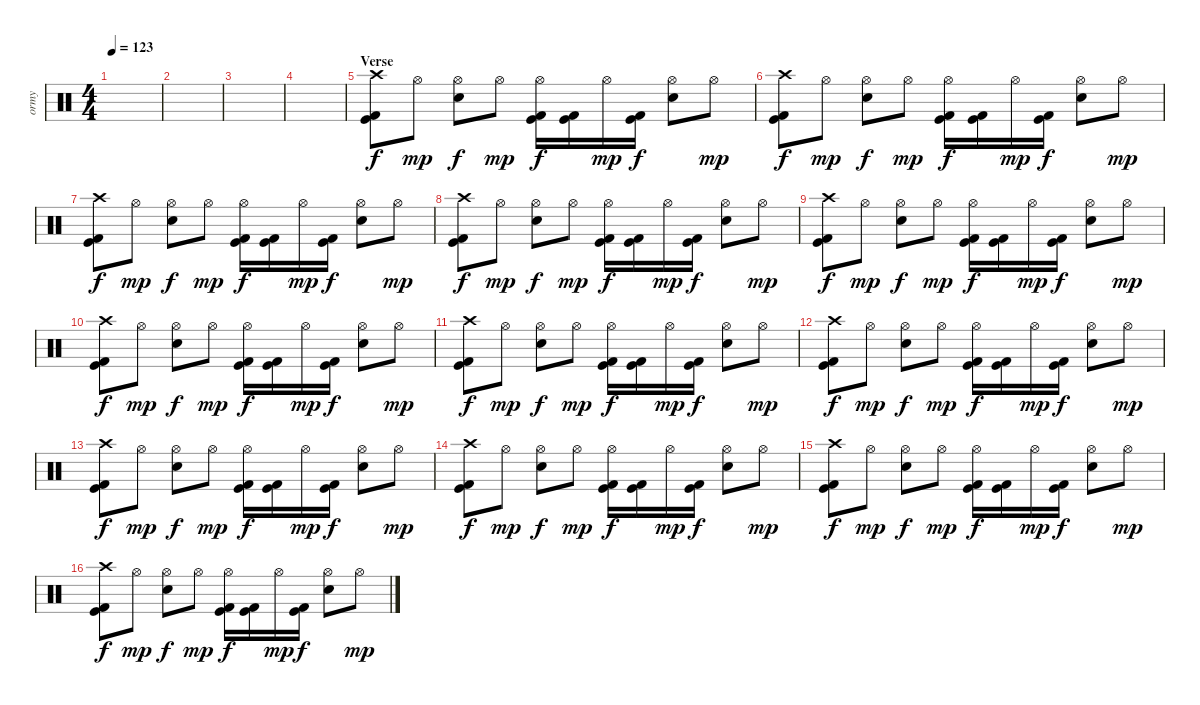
\track ("ormy" "ormy") {instrument percussion}
\staff {score}
\articulation defaults
\ts (4 4)
\tempo 123
\clef neutral
\ks c
|
|
|
|
\section ("" "Verse")
("Crash high (hit)" "Kick (hit) 2" "Kick (hit)").8 "Hi-Hat (open)".8{dy mp} ("Hi-Hat (open)" "Snare (hit) 2").8{dy f} "Hi-Hat (open)".8{dy mp} ("Hi-Hat (open)" "Kick (hit) 2" "Kick (hit)").16{dy f} ("Kick (hit) 2" "Kick (hit)").16 "Hi-Hat (open)".16{dy mp} ("Kick (hit) 2" "Kick (hit)").16{dy f} ("Hi-Hat (open)" "Snare (hit) 2").8 "Hi-Hat (open)".8{dy mp} |
("Crash high (hit)" "Kick (hit) 2" "Kick (hit)").8{dy f} "Hi-Hat (open)".8{dy mp} ("Hi-Hat (open)" "Snare (hit) 2").8{dy f} "Hi-Hat (open)".8{dy mp} ("Hi-Hat (open)" "Kick (hit) 2" "Kick (hit)").16{dy f} ("Kick (hit) 2" "Kick (hit)").16 "Hi-Hat (open)".16{dy mp} ("Kick (hit) 2" "Kick (hit)").16{dy f} ("Hi-Hat (open)" "Snare (hit) 2").8 "Hi-Hat (open)".8{dy mp} |
("Crash high (hit)" "Kick (hit) 2" "Kick (hit)").8{dy f} "Hi-Hat (open)".8{dy mp} ("Hi-Hat (open)" "Snare (hit) 2").8{dy f} "Hi-Hat (open)".8{dy mp} ("Hi-Hat (open)" "Kick (hit) 2" "Kick (hit)").16{dy f} ("Kick (hit) 2" "Kick (hit)").16 "Hi-Hat (open)".16{dy mp} ("Kick (hit) 2" "Kick (hit)").16{dy f} ("Hi-Hat (open)" "Snare (hit) 2").8 "Hi-Hat (open)".8{dy mp} |
("Crash high (hit)" "Kick (hit) 2" "Kick (hit)").8{dy f} "Hi-Hat (open)".8{dy mp} ("Hi-Hat (open)" "Snare (hit) 2").8{dy f} "Hi-Hat (open)".8{dy mp} ("Hi-Hat (open)" "Kick (hit) 2" "Kick (hit)").16{dy f} ("Kick (hit) 2" "Kick (hit)").16 "Hi-Hat (open)".16{dy mp} ("Kick (hit) 2" "Kick (hit)").16{dy f} ("Hi-Hat (open)" "Snare (hit) 2").8 "Hi-Hat (open)".8{dy mp} |
("Crash high (hit)" "Kick (hit) 2" "Kick (hit)").8{dy f} "Hi-Hat (open)".8{dy mp} ("Hi-Hat (open)" "Snare (hit) 2").8{dy f} "Hi-Hat (open)".8{dy mp} ("Hi-Hat (open)" "Kick (hit) 2" "Kick (hit)").16{dy f} ("Kick (hit) 2" "Kick (hit)").16 "Hi-Hat (open)".16{dy mp} ("Kick (hit) 2" "Kick (hit)").16{dy f} ("Hi-Hat (open)" "Snare (hit) 2").8 "Hi-Hat (open)".8{dy mp} |
("Crash high (hit)" "Kick (hit) 2" "Kick (hit)").8{dy f} "Hi-Hat (open)".8{dy mp} ("Hi-Hat (open)" "Snare (hit) 2").8{dy f} "Hi-Hat (open)".8{dy mp} ("Hi-Hat (open)" "Kick (hit) 2" "Kick (hit)").16{dy f} ("Kick (hit) 2" "Kick (hit)").16 "Hi-Hat (open)".16{dy mp} ("Kick (hit) 2" "Kick (hit)").16{dy f} ("Hi-Hat (open)" "Snare (hit) 2").8 "Hi-Hat (open)".8{dy mp} |
("Crash high (hit)" "Kick (hit) 2" "Kick (hit)").8{dy f} "Hi-Hat (open)".8{dy mp} ("Hi-Hat (open)" "Snare (hit) 2").8{dy f} "Hi-Hat (open)".8{dy mp} ("Hi-Hat (open)" "Kick (hit) 2" "Kick (hit)").16{dy f} ("Kick (hit) 2" "Kick (hit)").16 "Hi-Hat (open)".16{dy mp} ("Kick (hit) 2" "Kick (hit)").16{dy f} ("Hi-Hat (open)" "Snare (hit) 2").8 "Hi-Hat (open)".8{dy mp} |
("Crash high (hit)" "Kick (hit) 2" "Kick (hit)").8{dy f} "Hi-Hat (open)".8{dy mp} ("Hi-Hat (open)" "Snare (hit) 2").8{dy f} "Hi-Hat (open)".8{dy mp} ("Hi-Hat (open)" "Kick (hit) 2" "Kick (hit)").16{dy f} ("Kick (hit) 2" "Kick (hit)").16 "Hi-Hat (open)".16{dy mp} ("Kick (hit) 2" "Kick (hit)").16{dy f} ("Hi-Hat (open)" "Snare (hit) 2").8 "Hi-Hat (open)".8{dy mp} |
("Crash high (hit)" "Kick (hit) 2" "Kick (hit)").8{dy f} "Hi-Hat (open)".8{dy mp} ("Hi-Hat (open)" "Snare (hit) 2").8{dy f} "Hi-Hat (open)".8{dy mp} ("Hi-Hat (open)" "Kick (hit) 2" "Kick (hit)").16{dy f} ("Kick (hit) 2" "Kick (hit)").16 "Hi-Hat (open)".16{dy mp} ("Kick (hit) 2" "Kick (hit)").16{dy f} ("Hi-Hat (open)" "Snare (hit) 2").8 "Hi-Hat (open)".8{dy mp} |
("Crash high (hit)" "Kick (hit) 2" "Kick (hit)").8{dy f} "Hi-Hat (open)".8{dy mp} ("Hi-Hat (open)" "Snare (hit) 2").8{dy f} "Hi-Hat (open)".8{dy mp} ("Hi-Hat (open)" "Kick (hit) 2" "Kick (hit)").16{dy f} ("Kick (hit) 2" "Kick (hit)").16 "Hi-Hat (open)".16{dy mp} ("Kick (hit) 2" "Kick (hit)").16{dy f} ("Hi-Hat (open)" "Snare (hit) 2").8 "Hi-Hat (open)".8{dy mp} |
("Crash high (hit)" "Kick (hit) 2" "Kick (hit)").8{dy f} "Hi-Hat (open)".8{dy mp} ("Hi-Hat (open)" "Snare (hit) 2").8{dy f} "Hi-Hat (open)".8{dy mp} ("Hi-Hat (open)" "Kick (hit) 2" "Kick (hit)").16{dy f} ("Kick (hit) 2" "Kick (hit)").16 "Hi-Hat (open)".16{dy mp} ("Kick (hit) 2" "Kick (hit)").16{dy f} ("Hi-Hat (open)" "Snare (hit) 2").8 "Hi-Hat (open)".8{dy mp} |
("Crash high (hit)" "Kick (hit) 2" "Kick (hit)").8{dy f} "Hi-Hat (open)".8{dy mp} ("Hi-Hat (open)" "Snare (hit) 2").8{dy f} "Hi-Hat (open)".8{dy mp} ("Hi-Hat (open)" "Kick (hit) 2" "Kick (hit)").16{dy f} ("Kick (hit) 2" "Kick (hit)").16 "Hi-Hat (open)".16{dy mp} ("Kick (hit) 2" "Kick (hit)").16{dy f} ("Hi-Hat (open)" "Snare (hit) 2").8 "Hi-Hat (open)".8{dy mp}
